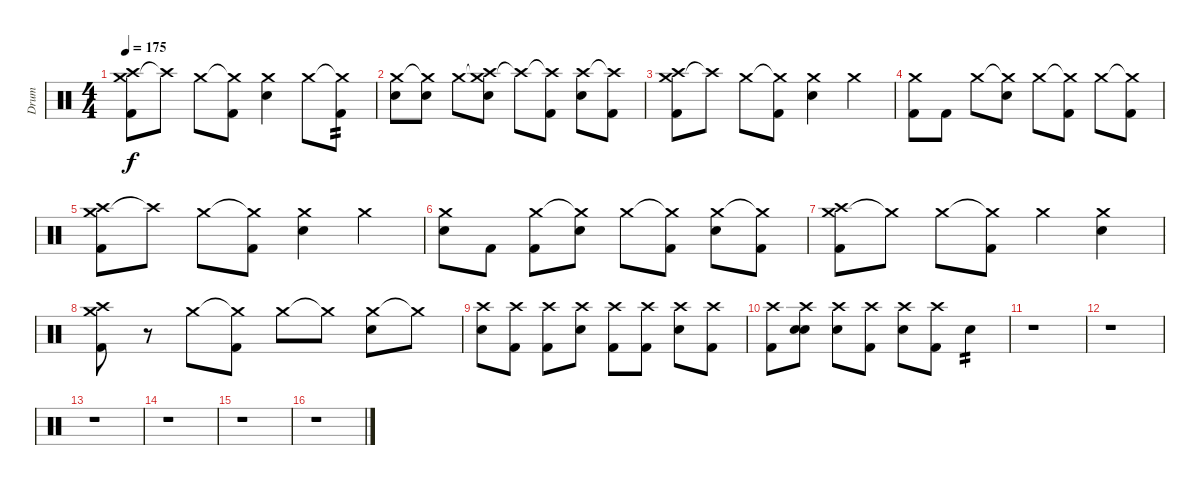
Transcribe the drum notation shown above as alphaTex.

\track ("Drum" "Drum") {instrument percussion}
\staff {score}
\articulation defaults
\ts (4 4)
\tempo 175
\clef neutral
\ks c
("Crash medium (hit)" "Crash high (hit)" "Kick (hit) 2").8{dy f} "Crash high (hit)"{t}.8 "Crash medium (hit)".8 ("Crash medium (hit)"{t} "Kick (hit) 2").8 ("Crash medium (hit)" "Snare (hit) 2").4 "Crash medium (hit)".8 ("Crash medium (hit)"{t} "Kick (hit) 2").8{tp 2} |
("Crash medium (hit)" "Snare (hit) 2").8 ("Crash medium (hit)"{t} "Snare (hit) 2").8 "Crash medium (hit)".8 ("Crash medium (hit)"{t} "Crash high (hit)" "Snare (hit) 2").8 "Crash high (hit)"{t}.8 ("Crash high (hit)"{t} "Kick (hit) 2").8 ("Crash high (hit)" "Snare (hit) 2").8 ("Crash high (hit)"{t} "Kick (hit) 2").8 |
("Crash medium (hit)" "Crash high (hit)" "Kick (hit) 2").8 "Crash high (hit)"{t}.8 "Crash medium (hit)".8 ("Crash medium (hit)"{t} "Kick (hit) 2").8 ("Crash medium (hit)" "Snare (hit) 2").4 "Crash medium (hit)".4 |
("Crash medium (hit)" "Kick (hit) 2").8 "Kick (hit) 2".8 "Crash medium (hit)".8 ("Crash medium (hit)"{t} "Snare (hit) 2").8 "Crash medium (hit)".8 ("Crash medium (hit)"{t} "Kick (hit) 2").8 "Crash medium (hit)".8 ("Crash medium (hit)"{t} "Kick (hit) 2").8 |
("Crash medium (hit)" "Crash high (hit)" "Kick (hit) 2").8 "Crash high (hit)"{t}.8 "Crash medium (hit)".8 ("Crash medium (hit)"{t} "Kick (hit) 2").8 ("Crash medium (hit)" "Snare (hit) 2").4 "Crash medium (hit)".4 |
("Crash medium (hit)" "Snare (hit) 2").8 "Kick (hit) 2".8 ("Crash medium (hit)" "Kick (hit) 2").8 ("Crash medium (hit)"{t} "Snare (hit) 2").8 "Crash medium (hit)".8 ("Crash medium (hit)"{t} "Kick (hit) 2").8 ("Crash medium (hit)" "Snare (hit) 2").8 ("Crash medium (hit)"{t} "Kick (hit) 2").8 |
("Crash medium (hit)" "Crash high (hit)" "Kick (hit) 2").8 "Crash medium (hit)"{t}.8 "Crash medium (hit)".8 ("Crash medium (hit)"{t} "Kick (hit) 2").8 "Crash medium (hit)".4 ("Crash medium (hit)" "Snare (hit) 2").4 |
("Crash medium (hit)" "Crash high (hit)" "Kick (hit) 2").8 r.8 "Crash medium (hit)".8 ("Crash medium (hit)"{t} "Kick (hit) 2").8 "Crash medium (hit)".8 "Crash medium (hit)"{t}.8 ("Crash medium (hit)" "Snare (hit) 2").8 "Crash medium (hit)"{t}.8 |
("Crash high (hit)" "Snare (hit) 2").8 ("Crash high (hit)" "Kick (hit) 2").8 ("Crash high (hit)" "Kick (hit) 2").8 ("Crash high (hit)" "Snare (hit) 2").8 ("Crash high (hit)" "Kick (hit) 2").8 ("Crash high (hit)" "Kick (hit) 2").8 ("Crash high (hit)" "Snare (hit) 2").8 ("Crash high (hit)" "Kick (hit) 2").8 |
("Crash high (hit)" "Kick (hit) 2").8 ("Crash high (hit)" "Snare (hit)" "Snare (hit) 2").8 ("Crash high (hit)" "Snare (hit) 2").8 ("Crash high (hit)" "Kick (hit) 2").8 ("Crash high (hit)" "Snare (hit) 2").8 ("Crash high (hit)" "Kick (hit) 2").8 "Snare (hit) 2".4{tp 2} |
r.1 |
r.1 |
r.1 |
r.1 |
r.1 |
r.1
